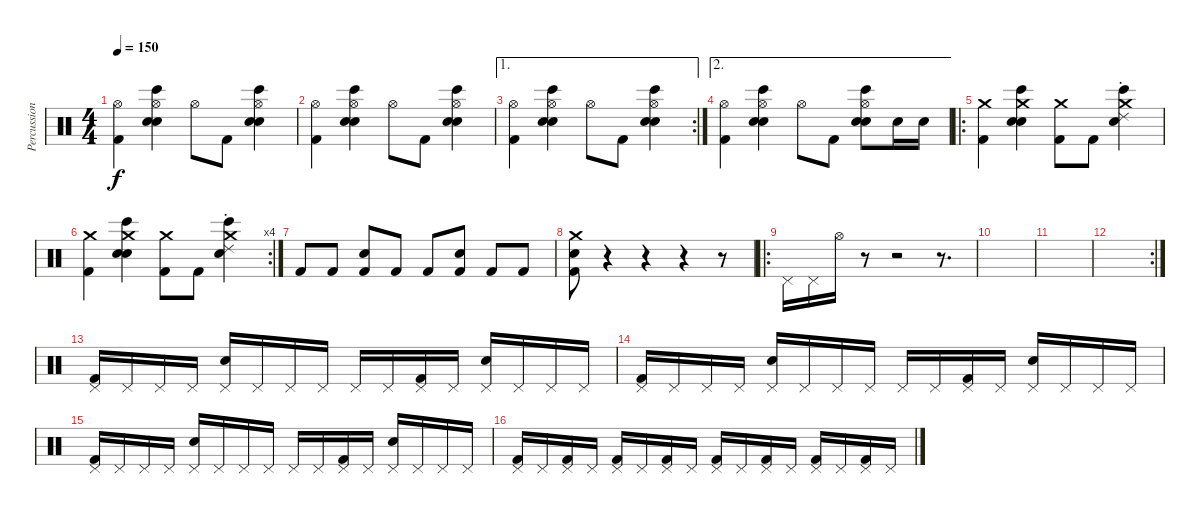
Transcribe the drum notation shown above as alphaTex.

\track ("Percussion" "Percussion") {instrument percussion}
\staff {score}
\articulation defaults
\ts (4 4)
\tempo 150
\clef neutral
\ks c
("Hi-Hat (open)" "Kick (hit) 2").4{dy f} ("Hi-Hat (open)" "Hand Clap (hit)" "Bongo High (hit)" "Snare (hit) 2").4 "Hi-Hat (open)".8 "Kick (hit) 2".8 ("Hi-Hat (open)" "Hand Clap (hit)" "Bongo High (hit)" "Snare (hit) 2").4 |
("Hi-Hat (open)" "Kick (hit) 2").4 ("Hi-Hat (open)" "Hand Clap (hit)" "Bongo High (hit)" "Snare (hit) 2").4 "Hi-Hat (open)".8 "Kick (hit) 2".8 ("Hi-Hat (open)" "Hand Clap (hit)" "Bongo High (hit)" "Snare (hit) 2").4 |
\ae 1
\rc 2
("Hi-Hat (open)" "Kick (hit) 2").4 ("Hi-Hat (open)" "Hand Clap (hit)" "Bongo High (hit)" "Snare (hit) 2").4 "Hi-Hat (open)".8 "Kick (hit) 2".8 ("Hi-Hat (open)" "Hand Clap (hit)" "Bongo High (hit)" "Snare (hit) 2").4 |
\ae 2
("Hi-Hat (open)" "Kick (hit) 2").4 ("Hi-Hat (open)" "Hand Clap (hit)" "Bongo High (hit)" "Snare (hit) 2").4 "Hi-Hat (open)".8 "Kick (hit) 2".8 ("Hi-Hat (open)" "Hand Clap (hit)" "Bongo High (hit)" "Snare (hit) 2").8 "Snare (hit) 2".16 "Snare (hit) 2".16 |
\ro
("Crash medium (hit)" "Kick (hit) 2").4 ("Crash medium (hit)" "Bongo High (hit)" "Hand Clap (hit)" "Snare (hit) 2").4 ("Crash medium (hit)" "Kick (hit) 2").8 "Kick (hit) 2".8 ("Crash medium (hit)" "Bongo High (hit)" "Ride (choke) 2" "Snare (hit) 2").4 |
\rc 4
("Crash medium (hit)" "Kick (hit) 2").4 ("Crash medium (hit)" "Bongo High (hit)" "Hand Clap (hit)" "Snare (hit) 2").4 ("Crash medium (hit)" "Kick (hit) 2").8 "Kick (hit) 2".8 ("Crash medium (hit)" "Bongo High (hit)" "Ride (choke) 2" "Snare (hit) 2").4 |
"Kick (hit) 2".8 "Kick (hit) 2".8 ("Snare (hit) 2" "Kick (hit) 2").8 "Kick (hit) 2".8 "Kick (hit) 2".8 ("Snare (hit) 2" "Kick (hit) 2").8 "Kick (hit) 2".8 "Kick (hit) 2".8 |
("Crash medium (hit)" "Snare (hit) 2" "Kick (hit) 2").8 r.4 r.4 r.4 r.8 |
\ro "Pedal Hi-Hat (hit)".16 "Pedal Hi-Hat (hit)".16 "Hi-Hat (open)".16
r.8 r.2 r.8{d} |
|
|
\rc 2
|
("Pedal Hi-Hat (hit)" "Kick (hit) 2").16 "Pedal Hi-Hat (hit)".16 "Pedal Hi-Hat (hit)".16 "Pedal Hi-Hat (hit)".16 ("Pedal Hi-Hat (hit)" "Snare (hit) 2").16 "Pedal Hi-Hat (hit)".16 "Pedal Hi-Hat (hit)".16 "Pedal Hi-Hat (hit)".16 "Pedal Hi-Hat (hit)".16 "Pedal Hi-Hat (hit)".16 ("Pedal Hi-Hat (hit)" "Kick (hit) 2").16 "Pedal Hi-Hat (hit)".16 ("Pedal Hi-Hat (hit)" "Snare (hit) 2").16 "Pedal Hi-Hat (hit)".16 "Pedal Hi-Hat (hit)".16 "Pedal Hi-Hat (hit)".16 |
("Pedal Hi-Hat (hit)" "Kick (hit) 2").16 "Pedal Hi-Hat (hit)".16 "Pedal Hi-Hat (hit)".16 "Pedal Hi-Hat (hit)".16 ("Pedal Hi-Hat (hit)" "Snare (hit) 2").16 "Pedal Hi-Hat (hit)".16 "Pedal Hi-Hat (hit)".16 "Pedal Hi-Hat (hit)".16 "Pedal Hi-Hat (hit)".16 "Pedal Hi-Hat (hit)".16 ("Pedal Hi-Hat (hit)" "Kick (hit) 2").16 "Pedal Hi-Hat (hit)".16 ("Pedal Hi-Hat (hit)" "Snare (hit) 2").16 "Pedal Hi-Hat (hit)".16 "Pedal Hi-Hat (hit)".16 "Pedal Hi-Hat (hit)".16 |
("Pedal Hi-Hat (hit)" "Kick (hit) 2").16 "Pedal Hi-Hat (hit)".16 "Pedal Hi-Hat (hit)".16 "Pedal Hi-Hat (hit)".16 ("Pedal Hi-Hat (hit)" "Snare (hit) 2").16 "Pedal Hi-Hat (hit)".16 "Pedal Hi-Hat (hit)".16 "Pedal Hi-Hat (hit)".16 "Pedal Hi-Hat (hit)".16 "Pedal Hi-Hat (hit)".16 ("Pedal Hi-Hat (hit)" "Kick (hit) 2").16 "Pedal Hi-Hat (hit)".16 ("Pedal Hi-Hat (hit)" "Snare (hit) 2").16 "Pedal Hi-Hat (hit)".16 "Pedal Hi-Hat (hit)".16 "Pedal Hi-Hat (hit)".16 |
("Pedal Hi-Hat (hit)" "Kick (hit) 2").16 "Pedal Hi-Hat (hit)".16 ("Pedal Hi-Hat (hit)" "Kick (hit) 2").16 "Pedal Hi-Hat (hit)".16 ("Pedal Hi-Hat (hit)" "Kick (hit) 2").16 "Pedal Hi-Hat (hit)".16 ("Pedal Hi-Hat (hit)" "Kick (hit) 2").16 "Pedal Hi-Hat (hit)".16 ("Pedal Hi-Hat (hit)" "Kick (hit) 2").16 "Pedal Hi-Hat (hit)".16 ("Pedal Hi-Hat (hit)" "Kick (hit) 2").16 "Pedal Hi-Hat (hit)".16 ("Pedal Hi-Hat (hit)" "Kick (hit) 2").16 "Pedal Hi-Hat (hit)".16 ("Pedal Hi-Hat (hit)" "Kick (hit) 2").16 "Pedal Hi-Hat (hit)".16
